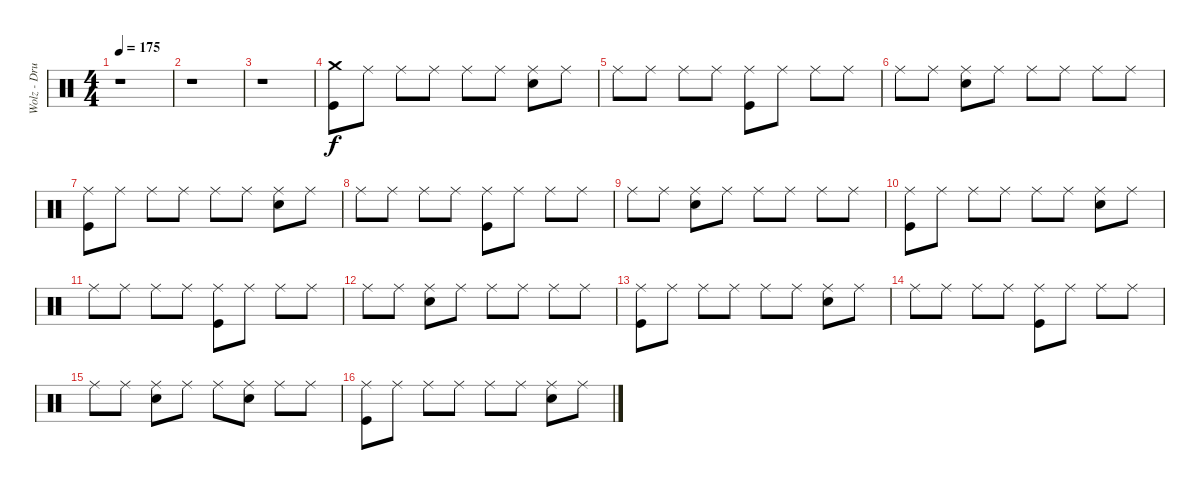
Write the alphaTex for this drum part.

\track ("Wolz - Drums" "Wolz - Dru") {instrument percussion}
\staff {score}
\articulation defaults
\ts (4 4)
\tempo 175
\clef neutral
\ks c
r.1{dy f} |
r.1 |
r.1 |
("Crash medium (hit)" "Kick (hit)").8 "Ride (middle)".8 "Ride (middle)".8 "Ride (middle)".8 "Ride (middle)".8 "Ride (middle)".8 ("Ride (middle)" "Electric Snare (hit)").8 "Ride (middle)".8 |
"Ride (middle)".8 "Ride (middle)".8 "Ride (middle)".8 "Ride (middle)".8 ("Ride (middle)" "Kick (hit)").8 "Ride (middle)".8 "Ride (middle)".8 "Ride (middle)".8 |
"Ride (middle)".8 "Ride (middle)".8 ("Ride (middle)" "Electric Snare (hit)").8 "Ride (middle)".8 "Ride (middle)".8 "Ride (middle)".8 "Ride (middle)".8 "Ride (middle)".8 |
("Ride (middle)" "Kick (hit)").8 "Ride (middle)".8 "Ride (middle)".8 "Ride (middle)".8 "Ride (middle)".8 "Ride (middle)".8 ("Ride (middle)" "Electric Snare (hit)").8 "Ride (middle)".8 |
"Ride (middle)".8 "Ride (middle)".8 "Ride (middle)".8 "Ride (middle)".8 ("Ride (middle)" "Kick (hit)").8 "Ride (middle)".8 "Ride (middle)".8 "Ride (middle)".8 |
"Ride (middle)".8 "Ride (middle)".8 ("Ride (middle)" "Electric Snare (hit)").8 "Ride (middle)".8 "Ride (middle)".8 "Ride (middle)".8 "Ride (middle)".8 "Ride (middle)".8 |
("Ride (middle)" "Kick (hit)").8 "Ride (middle)".8 "Ride (middle)".8 "Ride (middle)".8 "Ride (middle)".8 "Ride (middle)".8 ("Ride (middle)" "Electric Snare (hit)").8 "Ride (middle)".8 |
"Ride (middle)".8 "Ride (middle)".8 "Ride (middle)".8 "Ride (middle)".8 ("Ride (middle)" "Kick (hit)").8 "Ride (middle)".8 "Ride (middle)".8 "Ride (middle)".8 |
"Ride (middle)".8 "Ride (middle)".8 ("Ride (middle)" "Electric Snare (hit)").8 "Ride (middle)".8 "Ride (middle)".8 "Ride (middle)".8 "Ride (middle)".8 "Ride (middle)".8 |
("Ride (middle)" "Kick (hit)").8 "Ride (middle)".8 "Ride (middle)".8 "Ride (middle)".8 "Ride (middle)".8 "Ride (middle)".8 ("Ride (middle)" "Electric Snare (hit)").8 "Ride (middle)".8 |
"Ride (middle)".8 "Ride (middle)".8 "Ride (middle)".8 "Ride (middle)".8 ("Ride (middle)" "Kick (hit)").8 "Ride (middle)".8 "Ride (middle)".8 "Ride (middle)".8 |
"Ride (middle)".8 "Ride (middle)".8 ("Ride (middle)" "Electric Snare (hit)").8 "Ride (middle)".8 "Ride (middle)".8 ("Ride (middle)" "Electric Snare (hit)").8 "Ride (middle)".8 "Ride (middle)".8 |
("Ride (middle)" "Kick (hit)").8 "Ride (middle)".8 "Ride (middle)".8 "Ride (middle)".8 "Ride (middle)".8 "Ride (middle)".8 ("Ride (middle)" "Electric Snare (hit)").8 "Ride (middle)".8
